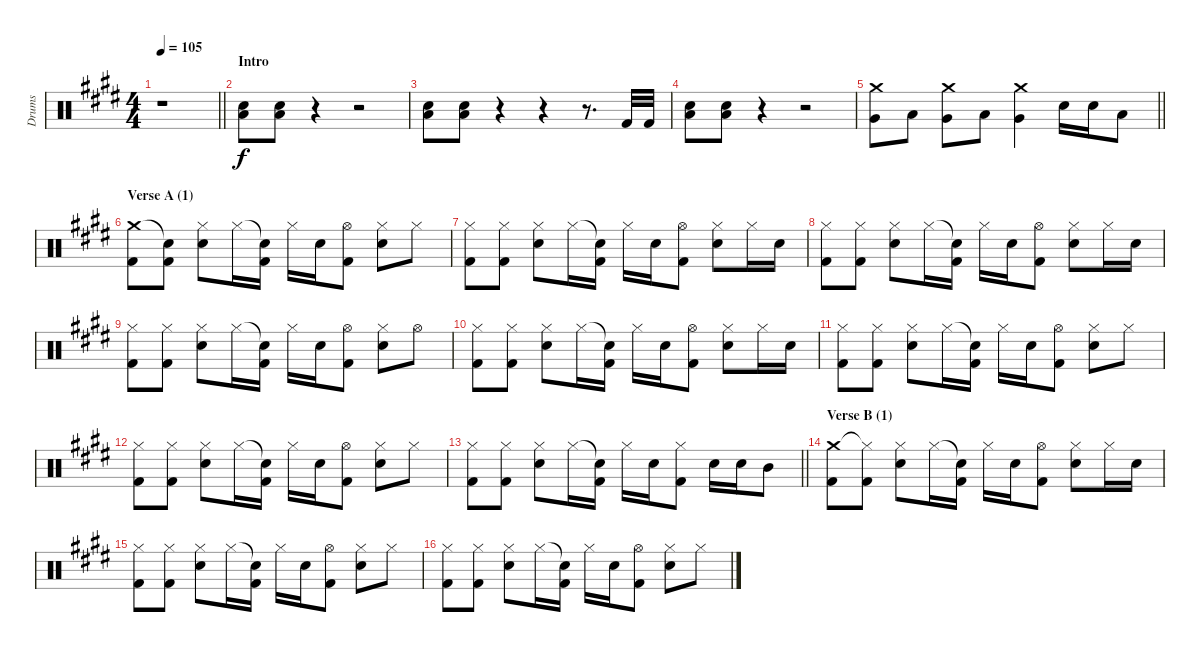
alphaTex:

\track ("Drums" "Drums") {instrument percussion}
\staff {score}
\articulation defaults
\ts (4 4)
\tempo 105
\clef neutral
\barLineRight lightlight
\ks e
r.1{dy f} |
\section ("" "Intro")
("Electric Snare (hit)" "Low Floor Tom (hit)").8 ("Electric Snare (hit)" "Low Floor Tom (hit)").8 r.4 r.2 |
("Electric Snare (hit)" "Low Floor Tom (hit)").8 ("Electric Snare (hit)" "Low Floor Tom (hit)").8 r.4 r.4 r.8{d} "Kick (hit) 2".32 "Kick (hit) 2".32 |
("Electric Snare (hit)" "Low Floor Tom (hit)").8 ("Electric Snare (hit)" "Low Floor Tom (hit)").8 r.4 r.2 |
\barLineRight lightlight
("Crash medium (hit)" "Very Low Tom (hit)").8 "Low Floor Tom (hit)".8 ("Crash medium (hit)" "Very Low Tom (hit)").8 "Low Floor Tom (hit)".8 ("Crash medium (hit)" "Very Low Tom (hit)").4 "Electric Snare (hit)".16 "Electric Snare (hit)".16 "Low Tom (hit)".8 |
\section ("" "Verse A (1)")
("Crash medium (hit)" "Kick (hit) 2").8 ("Snare (hit)"{t} "Kick (hit) 2").8 ("Hi-Hat (closed)" "Electric Snare (hit)").8 "Hi-Hat (closed)".16 ("Snare (hit)"{t} "Kick (hit) 2").16 "Hi-Hat (closed)".16 "Electric Snare (hit)".16 ("Hi-Hat (open)" "Kick (hit) 2").8 ("Hi-Hat (closed)" "Electric Snare (hit)").8 "Hi-Hat (closed)".8 |
("Hi-Hat (closed)" "Kick (hit) 2").8 ("Hi-Hat (closed)" "Kick (hit) 2").8 ("Hi-Hat (closed)" "Electric Snare (hit)").8 "Hi-Hat (closed)".16 ("Snare (hit)"{t} "Kick (hit) 2").16 "Hi-Hat (closed)".16 "Electric Snare (hit)".16 ("Hi-Hat (open)" "Kick (hit) 2").8 ("Hi-Hat (closed)" "Electric Snare (hit)").8 "Hi-Hat (closed)".16 "Electric Snare (hit)".16 |
("Hi-Hat (closed)" "Kick (hit) 2").8 ("Hi-Hat (closed)" "Kick (hit) 2").8 ("Hi-Hat (closed)" "Electric Snare (hit)").8 "Hi-Hat (closed)".16 ("Snare (hit)"{t} "Kick (hit) 2").16 "Hi-Hat (closed)".16 "Electric Snare (hit)".16 ("Hi-Hat (open)" "Kick (hit) 2").8 ("Hi-Hat (closed)" "Electric Snare (hit)").8 "Hi-Hat (closed)".16 "Electric Snare (hit)".16 |
("Hi-Hat (closed)" "Kick (hit) 2").8 ("Hi-Hat (closed)" "Kick (hit) 2").8 ("Hi-Hat (closed)" "Electric Snare (hit)").8 "Hi-Hat (closed)".16 ("Snare (hit)"{t} "Kick (hit) 2").16 "Hi-Hat (closed)".16 "Electric Snare (hit)".16 ("Hi-Hat (open)" "Kick (hit) 2").8 ("Hi-Hat (closed)" "Electric Snare (hit)").8 "Hi-Hat (open)".8 |
("Hi-Hat (closed)" "Kick (hit) 2").8 ("Hi-Hat (closed)" "Kick (hit) 2").8 ("Hi-Hat (closed)" "Electric Snare (hit)").8 "Hi-Hat (closed)".16 ("Snare (hit)"{t} "Kick (hit) 2").16 "Hi-Hat (closed)".16 "Electric Snare (hit)".16 ("Hi-Hat (open)" "Kick (hit) 2").8 ("Hi-Hat (closed)" "Electric Snare (hit)").8 "Hi-Hat (closed)".16 "Electric Snare (hit)".16 |
("Hi-Hat (closed)" "Kick (hit) 2").8 ("Hi-Hat (closed)" "Kick (hit) 2").8 ("Hi-Hat (closed)" "Electric Snare (hit)").8 "Hi-Hat (closed)".16 ("Snare (hit)"{t} "Kick (hit) 2").16 "Hi-Hat (closed)".16 "Electric Snare (hit)".16 ("Hi-Hat (open)" "Kick (hit) 2").8 ("Hi-Hat (closed)" "Electric Snare (hit)").8 "Hi-Hat (closed)".8 |
("Hi-Hat (closed)" "Kick (hit) 2").8 ("Hi-Hat (closed)" "Kick (hit) 2").8 ("Hi-Hat (closed)" "Electric Snare (hit)").8 "Hi-Hat (closed)".16 ("Snare (hit)"{t} "Kick (hit) 2").16 "Hi-Hat (closed)".16 "Electric Snare (hit)".16 ("Hi-Hat (open)" "Kick (hit) 2").8 ("Hi-Hat (closed)" "Electric Snare (hit)").8 "Hi-Hat (closed)".8 |
\barLineRight lightlight
("Hi-Hat (closed)" "Kick (hit) 2").8 ("Hi-Hat (closed)" "Kick (hit) 2").8 ("Hi-Hat (closed)" "Electric Snare (hit)").8 "Hi-Hat (closed)".16 ("Snare (hit)"{t} "Kick (hit) 2").16 "Hi-Hat (closed)".16 "Electric Snare (hit)".16 ("Hi-Hat (closed)" "Kick (hit) 2").8 "Electric Snare (hit)".16 "Electric Snare (hit)".16 "Mid Tom (hit)".8 |
\section ("" "Verse B (1)")
("Crash medium (hit)" "Kick (hit) 2").8 ("Hi-Hat (closed)"{t} "Kick (hit) 2").8 ("Hi-Hat (closed)" "Electric Snare (hit)").8 "Hi-Hat (closed)".16 ("Snare (hit)"{t} "Kick (hit) 2").16 "Hi-Hat (closed)".16 "Electric Snare (hit)".16 ("Hi-Hat (open)" "Kick (hit) 2").8 ("Hi-Hat (closed)" "Electric Snare (hit)").8 "Hi-Hat (closed)".16 "Electric Snare (hit)".16 |
("Hi-Hat (closed)" "Kick (hit) 2").8 ("Hi-Hat (closed)" "Kick (hit) 2").8 ("Hi-Hat (closed)" "Electric Snare (hit)").8 "Hi-Hat (closed)".16 ("Snare (hit)"{t} "Kick (hit) 2").16 "Hi-Hat (closed)".16 "Electric Snare (hit)".16 ("Hi-Hat (open)" "Kick (hit) 2").8 ("Hi-Hat (closed)" "Electric Snare (hit)").8 "Hi-Hat (closed)".8 |
("Hi-Hat (closed)" "Kick (hit) 2").8 ("Hi-Hat (closed)" "Kick (hit) 2").8 ("Hi-Hat (closed)" "Electric Snare (hit)").8 "Hi-Hat (closed)".16 ("Snare (hit)"{t} "Kick (hit) 2").16 "Hi-Hat (closed)".16 "Electric Snare (hit)".16 ("Hi-Hat (open)" "Kick (hit) 2").8 ("Hi-Hat (closed)" "Electric Snare (hit)").8 "Hi-Hat (closed)".8
